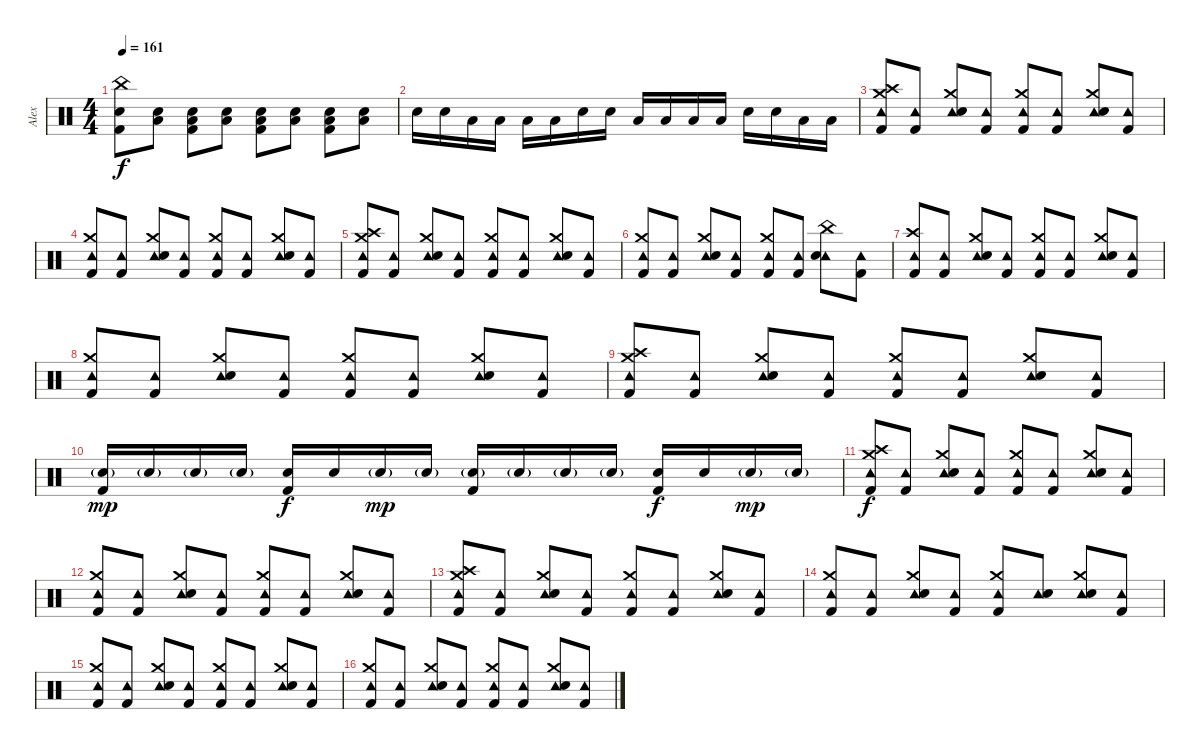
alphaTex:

\track ("Alex" "Alex") {instrument percussion}
\staff
\articulation defaults
\ts (4 4)
\tempo 161
\clef neutral
\ks c
("China (hit)" "Electric Snare (hit)" "Kick (hit) 2").8{dy f} ("Electric Snare (hit)" "Low Floor Tom (hit)").8 ("Electric Snare (hit)" "Low Floor Tom (hit)" "Kick (hit) 2").8 ("Electric Snare (hit)" "Low Floor Tom (hit)").8 ("Electric Snare (hit)" "Low Floor Tom (hit)" "Kick (hit) 2").8 ("Electric Snare (hit)" "Low Floor Tom (hit)").8 ("Electric Snare (hit)" "Low Floor Tom (hit)" "Kick (hit) 2").8 ("Electric Snare (hit)" "Low Floor Tom (hit)").8 |
"Electric Snare (hit)".16 "Electric Snare (hit)".16 "Low Tom (hit)".16 "Low Tom (hit)".16 "Low Tom (hit)".16 "Low Tom (hit)".16 "Electric Snare (hit)".16 "Electric Snare (hit)".16 "Low Tom (hit)".16 "Low Tom (hit)".16 "Low Tom (hit)".16 "Low Tom (hit)".16 "Electric Snare (hit)".16 "Electric Snare (hit)".16 "Low Tom (hit)".16 "Low Tom (hit)".16 |
("Crash medium (hit)" "Crash high (hit)" "Tambourine (hit)" "Kick (hit) 2").8 ("Tambourine (hit)" "Kick (hit) 2").8 ("Crash medium (hit)" "Tambourine (hit)" "Electric Snare (hit)").8 ("Tambourine (hit)" "Kick (hit) 2").8 ("Crash medium (hit)" "Tambourine (hit)" "Kick (hit) 2").8 ("Tambourine (hit)" "Kick (hit) 2").8 ("Crash medium (hit)" "Tambourine (hit)" "Electric Snare (hit)").8 ("Tambourine (hit)" "Kick (hit) 2").8 |
("Crash medium (hit)" "Tambourine (hit)" "Kick (hit) 2").8 ("Tambourine (hit)" "Kick (hit) 2").8 ("Crash medium (hit)" "Tambourine (hit)" "Electric Snare (hit)").8 ("Tambourine (hit)" "Kick (hit) 2").8 ("Crash medium (hit)" "Tambourine (hit)" "Kick (hit) 2").8 ("Tambourine (hit)" "Kick (hit) 2").8 ("Crash medium (hit)" "Tambourine (hit)" "Electric Snare (hit)").8 ("Tambourine (hit)" "Kick (hit) 2").8 |
("Crash medium (hit)" "Crash high (hit)" "Tambourine (hit)" "Kick (hit) 2").8 ("Tambourine (hit)" "Kick (hit) 2").8 ("Crash medium (hit)" "Tambourine (hit)" "Electric Snare (hit)").8 ("Tambourine (hit)" "Kick (hit) 2").8 ("Crash medium (hit)" "Tambourine (hit)" "Kick (hit) 2").8 ("Tambourine (hit)" "Kick (hit) 2").8 ("Crash medium (hit)" "Tambourine (hit)" "Electric Snare (hit)").8 ("Tambourine (hit)" "Kick (hit) 2").8 |
("Crash medium (hit)" "Tambourine (hit)" "Kick (hit) 2").8 ("Tambourine (hit)" "Kick (hit) 2").8 ("Crash medium (hit)" "Tambourine (hit)" "Electric Snare (hit)").8 ("Tambourine (hit)" "Kick (hit) 2").8 ("Crash medium (hit)" "Tambourine (hit)" "Kick (hit) 2").8 ("Tambourine (hit)" "Kick (hit) 2").8 ("China (hit)" "Tambourine (hit)" "Electric Snare (hit)").8 ("Tambourine (hit)" "Kick (hit) 2").8 |
("Crash high (hit)" "Tambourine (hit)" "Kick (hit) 2").8 ("Tambourine (hit)" "Kick (hit) 2").8 ("Crash medium (hit)" "Tambourine (hit)" "Electric Snare (hit)").8 ("Tambourine (hit)" "Kick (hit) 2").8 ("Crash medium (hit)" "Tambourine (hit)" "Kick (hit) 2").8 ("Tambourine (hit)" "Kick (hit) 2").8 ("Crash medium (hit)" "Tambourine (hit)" "Electric Snare (hit)").8 ("Tambourine (hit)" "Kick (hit) 2").8 |
("Crash medium (hit)" "Tambourine (hit)" "Kick (hit) 2").8 ("Tambourine (hit)" "Kick (hit) 2").8 ("Crash medium (hit)" "Tambourine (hit)" "Electric Snare (hit)").8 ("Tambourine (hit)" "Kick (hit) 2").8 ("Crash medium (hit)" "Tambourine (hit)" "Kick (hit) 2").8 ("Tambourine (hit)" "Kick (hit) 2").8 ("Crash medium (hit)" "Tambourine (hit)" "Electric Snare (hit)").8 ("Tambourine (hit)" "Kick (hit) 2").8 |
("Crash medium (hit)" "Crash high (hit)" "Tambourine (hit)" "Kick (hit) 2").8 ("Tambourine (hit)" "Kick (hit) 2").8 ("Crash medium (hit)" "Tambourine (hit)" "Electric Snare (hit)").8 ("Tambourine (hit)" "Kick (hit) 2").8 ("Crash medium (hit)" "Tambourine (hit)" "Kick (hit) 2").8 ("Tambourine (hit)" "Kick (hit) 2").8 ("Crash medium (hit)" "Tambourine (hit)" "Electric Snare (hit)").8 ("Tambourine (hit)" "Kick (hit) 2").8 |
("Electric Snare (hit)"{g} "Kick (hit) 2").16{dy mp} "Electric Snare (hit)"{g}.16 "Electric Snare (hit)"{g}.16 "Electric Snare (hit)"{g}.16 ("Electric Snare (hit)" "Kick (hit) 2").16{dy f} "Electric Snare (hit)".16 "Electric Snare (hit)"{g}.16{dy mp} "Electric Snare (hit)"{g}.16 ("Electric Snare (hit)"{g} "Kick (hit) 2").16 "Electric Snare (hit)"{g}.16 "Electric Snare (hit)"{g}.16 "Electric Snare (hit)"{g}.16 ("Electric Snare (hit)" "Kick (hit) 2").16{dy f} "Electric Snare (hit)".16 "Electric Snare (hit)"{g}.16{dy mp} "Electric Snare (hit)"{g}.16 |
("Crash medium (hit)" "Crash high (hit)" "Tambourine (hit)" "Kick (hit) 2").8{dy f} ("Tambourine (hit)" "Kick (hit) 2").8 ("Crash medium (hit)" "Tambourine (hit)" "Electric Snare (hit)").8 ("Tambourine (hit)" "Kick (hit) 2").8 ("Crash medium (hit)" "Tambourine (hit)" "Kick (hit) 2").8 ("Tambourine (hit)" "Kick (hit) 2").8 ("Crash medium (hit)" "Tambourine (hit)" "Electric Snare (hit)").8 ("Tambourine (hit)" "Kick (hit) 2").8 |
("Crash medium (hit)" "Tambourine (hit)" "Kick (hit) 2").8 ("Tambourine (hit)" "Kick (hit) 2").8 ("Crash medium (hit)" "Tambourine (hit)" "Electric Snare (hit)").8 ("Tambourine (hit)" "Kick (hit) 2").8 ("Crash medium (hit)" "Tambourine (hit)" "Kick (hit) 2").8 ("Tambourine (hit)" "Kick (hit) 2").8 ("Crash medium (hit)" "Tambourine (hit)" "Electric Snare (hit)").8 ("Tambourine (hit)" "Kick (hit) 2").8 |
("Crash medium (hit)" "Crash high (hit)" "Tambourine (hit)" "Kick (hit) 2").8 ("Tambourine (hit)" "Kick (hit) 2").8 ("Crash medium (hit)" "Tambourine (hit)" "Electric Snare (hit)").8 ("Tambourine (hit)" "Kick (hit) 2").8 ("Crash medium (hit)" "Tambourine (hit)" "Kick (hit) 2").8 ("Tambourine (hit)" "Kick (hit) 2").8 ("Crash medium (hit)" "Tambourine (hit)" "Electric Snare (hit)").8 ("Tambourine (hit)" "Kick (hit) 2").8 |
("Crash medium (hit)" "Tambourine (hit)" "Kick (hit) 2").8 ("Tambourine (hit)" "Kick (hit) 2").8 ("Crash medium (hit)" "Tambourine (hit)" "Electric Snare (hit)").8 ("Tambourine (hit)" "Kick (hit) 2").8 ("Crash medium (hit)" "Tambourine (hit)" "Kick (hit) 2").8 ("Tambourine (hit)" "Electric Snare (hit)").8 ("Crash medium (hit)" "Tambourine (hit)" "Electric Snare (hit)").8 ("Tambourine (hit)" "Kick (hit) 2").8 |
("Crash medium (hit)" "Tambourine (hit)" "Kick (hit) 2").8 ("Tambourine (hit)" "Kick (hit) 2").8 ("Crash medium (hit)" "Tambourine (hit)" "Electric Snare (hit)").8 ("Tambourine (hit)" "Kick (hit) 2").8 ("Crash medium (hit)" "Tambourine (hit)" "Kick (hit) 2").8 ("Tambourine (hit)" "Kick (hit) 2").8 ("Crash medium (hit)" "Tambourine (hit)" "Electric Snare (hit)").8 ("Tambourine (hit)" "Kick (hit) 2").8 |
("Crash medium (hit)" "Tambourine (hit)" "Kick (hit) 2").8 ("Tambourine (hit)" "Kick (hit) 2").8 ("Crash medium (hit)" "Tambourine (hit)" "Electric Snare (hit)").8 ("Tambourine (hit)" "Kick (hit) 2").8 ("Crash medium (hit)" "Tambourine (hit)" "Kick (hit) 2").8 ("Tambourine (hit)" "Kick (hit) 2").8 ("Crash medium (hit)" "Tambourine (hit)" "Electric Snare (hit)").8 ("Tambourine (hit)" "Kick (hit) 2").8
